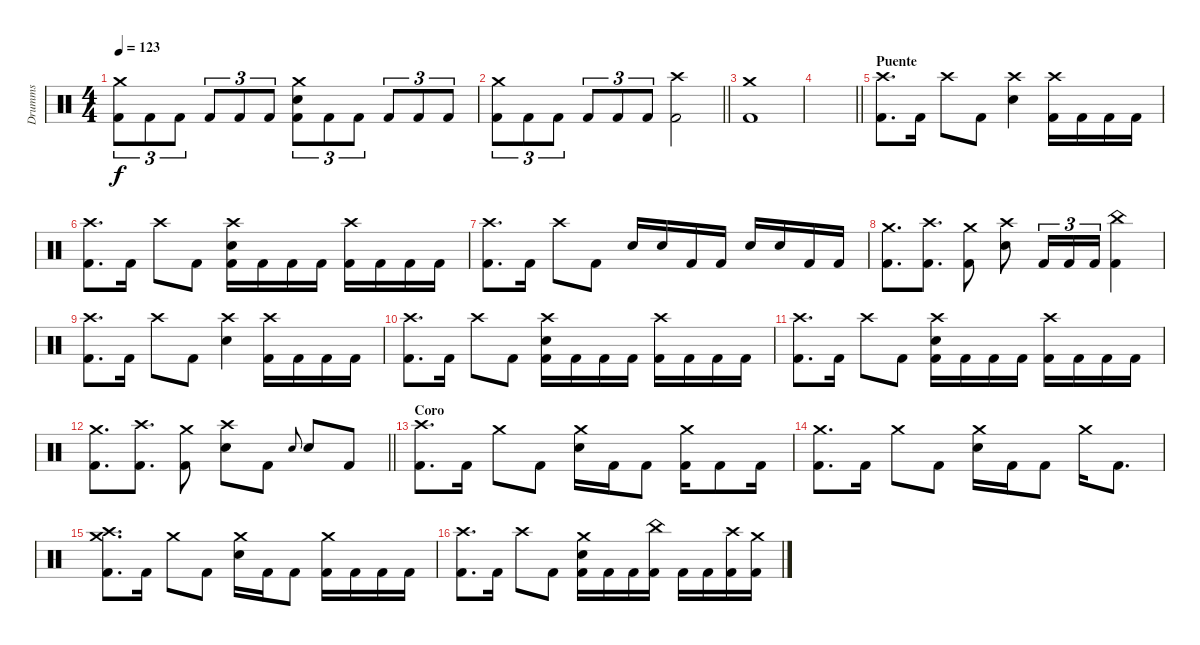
\track ("Drumms" "Drumms") {instrument percussion}
\staff {score}
\articulation defaults
\ts (4 4)
\tempo 123
\clef neutral
\ks aminor
("Crash medium (hit)" "Kick (hit) 2").8{tu (3 2) dy f} "Kick (hit) 2".8{tu (3 2)} "Kick (hit) 2".8{tu (3 2)} "Kick (hit) 2".8{tu (3 2)} "Kick (hit) 2".8{tu (3 2)} "Kick (hit) 2".8{tu (3 2)} ("Crash medium (hit)" "Electric Snare (hit)" "Kick (hit) 2").8{tu (3 2)} "Kick (hit) 2".8{tu (3 2)} "Kick (hit) 2".8{tu (3 2)} "Kick (hit) 2".8{tu (3 2)} "Kick (hit) 2".8{tu (3 2)} "Kick (hit) 2".8{tu (3 2)} |
\barLineRight lightlight
("Crash medium (hit)" "Kick (hit) 2").8{tu (3 2)} "Kick (hit) 2".8{tu (3 2)} "Kick (hit) 2".8{tu (3 2)} "Kick (hit) 2".8{tu (3 2)} "Kick (hit) 2".8{tu (3 2)} "Kick (hit) 2".8{tu (3 2)} ("Crash high (hit)" "Kick (hit) 2").2 |
("Crash medium (hit)" "Kick (hit) 2").1 |
\barLineRight lightlight
|
\section ("" "Puente")
("Crash high (hit)" "Kick (hit) 2").8{d} "Kick (hit) 2".16 "Crash high (hit)".8 "Kick (hit) 2".8 ("Crash high (hit)" "Electric Snare (hit)").4 ("Crash high (hit)" "Kick (hit) 2").16 "Kick (hit) 2".16 "Kick (hit) 2".16 "Kick (hit) 2".16 |
("Crash high (hit)" "Kick (hit) 2").8{d} "Kick (hit) 2".16 "Crash high (hit)".8 "Kick (hit) 2".8 ("Crash high (hit)" "Electric Snare (hit)" "Kick (hit) 2").16 "Kick (hit) 2".16 "Kick (hit) 2".16 "Kick (hit) 2".16 ("Crash high (hit)" "Kick (hit) 2").16 "Kick (hit) 2".16 "Kick (hit) 2".16 "Kick (hit) 2".16 |
("Crash high (hit)" "Kick (hit) 2").8{d} "Kick (hit) 2".16 "Crash high (hit)".8 "Kick (hit) 2".8 "Electric Snare (hit)".16 "Electric Snare (hit)".16 "Kick (hit) 2".16 "Kick (hit) 2".16 "Electric Snare (hit)".16 "Electric Snare (hit)".16 "Kick (hit) 2".16 "Kick (hit) 2".16 |
("Crash medium (hit)" "Kick (hit) 2").8{d} ("Crash high (hit)" "Kick (hit) 2").8{d} ("Crash medium (hit)" "Kick (hit) 2").8 ("Crash high (hit)" "Electric Snare (hit)").8 "Kick (hit) 2".16{tu (3 2)} "Kick (hit) 2".16{tu (3 2)} "Kick (hit) 2".16{tu (3 2)} ("China (hit)" "Kick (hit) 2").4 |
("Crash high (hit)" "Kick (hit) 2").8{d} "Kick (hit) 2".16 "Crash high (hit)".8 "Kick (hit) 2".8 ("Crash high (hit)" "Electric Snare (hit)").4 ("Crash high (hit)" "Kick (hit) 2").16 "Kick (hit) 2".16 "Kick (hit) 2".16 "Kick (hit) 2".16 |
("Crash high (hit)" "Kick (hit) 2").8{d} "Kick (hit) 2".16 "Crash high (hit)".8 "Kick (hit) 2".8 ("Crash high (hit)" "Electric Snare (hit)" "Kick (hit) 2").16 "Kick (hit) 2".16 "Kick (hit) 2".16 "Kick (hit) 2".16 ("Crash high (hit)" "Kick (hit) 2").16 "Kick (hit) 2".16 "Kick (hit) 2".16 "Kick (hit) 2".16 |
("Crash high (hit)" "Kick (hit) 2").8{d} "Kick (hit) 2".16 "Crash high (hit)".8 "Kick (hit) 2".8 ("Crash high (hit)" "Electric Snare (hit)" "Kick (hit) 2").16 "Kick (hit) 2".16 "Kick (hit) 2".16 "Kick (hit) 2".16 ("Crash high (hit)" "Kick (hit) 2").16 "Kick (hit) 2".16 "Kick (hit) 2".16 "Kick (hit) 2".16 |
\barLineRight lightlight
("Crash medium (hit)" "Kick (hit) 2").8{d} ("Crash high (hit)" "Kick (hit) 2").8{d} ("Crash medium (hit)" "Kick (hit) 2").8 ("Crash high (hit)" "Electric Snare (hit)").8 "Kick (hit) 2".8 "Electric Snare (hit)".8{gr onbeat} "Electric Snare (hit)".8 "Kick (hit) 2".8 |
\section ("" "Coro")
("Crash high (hit)" "Kick (hit) 2").8{d} "Kick (hit) 2".16 "Crash medium (hit)".8 "Kick (hit) 2".8 ("Crash medium (hit)" "Electric Snare (hit)").16 "Kick (hit) 2".16 "Kick (hit) 2".8 ("Crash medium (hit)" "Kick (hit) 2").16 "Kick (hit) 2".8 "Kick (hit) 2".16 |
("Crash medium (hit)" "Kick (hit) 2").8{d} "Kick (hit) 2".16 "Crash medium (hit)".8 "Kick (hit) 2".8 ("Crash medium (hit)" "Electric Snare (hit)").16 "Kick (hit) 2".16 "Kick (hit) 2".8 "Crash medium (hit)".16 "Kick (hit) 2".8{d} |
("Crash medium (hit)" "Crash high (hit)" "Kick (hit) 2").8{d} "Kick (hit) 2".16 "Crash medium (hit)".8 "Kick (hit) 2".8 ("Crash medium (hit)" "Electric Snare (hit)").16 "Kick (hit) 2".16 "Kick (hit) 2".8 ("Crash medium (hit)" "Kick (hit) 2").16 "Kick (hit) 2".16 "Kick (hit) 2".16 "Kick (hit) 2".16 |
("Crash high (hit)" "Kick (hit) 2").8{d} "Kick (hit) 2".16 "Crash high (hit)".8 "Kick (hit) 2".8 ("Crash medium (hit)" "Electric Snare (hit)" "Kick (hit) 2").16 "Kick (hit) 2".16 "Kick (hit) 2".16 ("China (hit)" "Kick (hit) 2").16 "Kick (hit) 2".16 "Kick (hit) 2".16 ("Crash high (hit)" "Kick (hit) 2").16 ("Crash medium (hit)" "Kick (hit) 2").16
